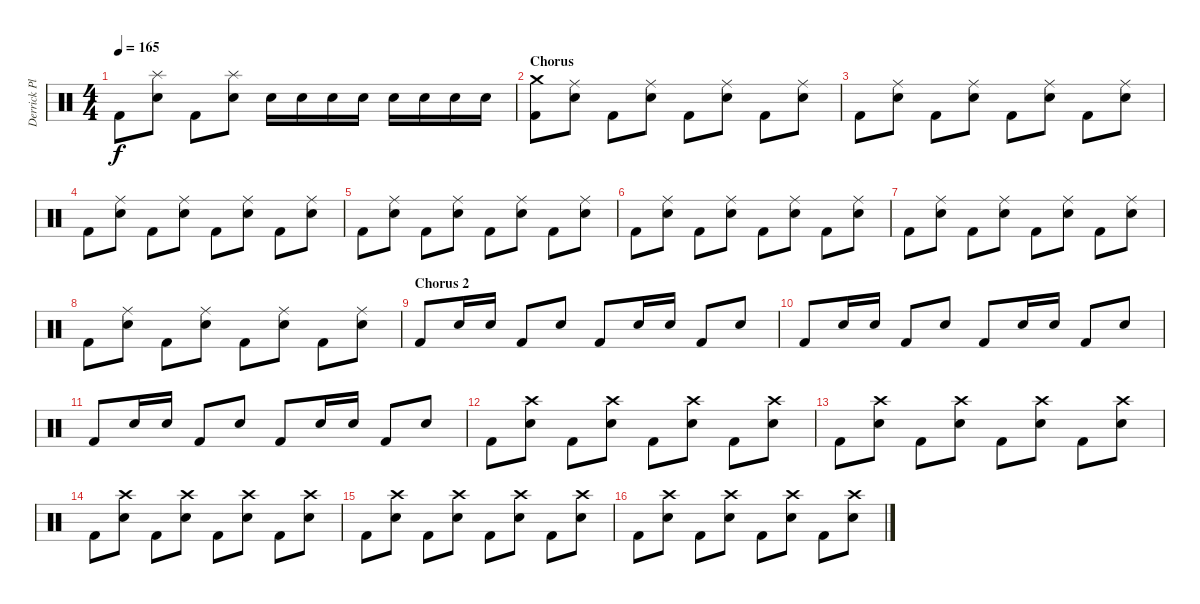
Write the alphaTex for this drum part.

\track ("Derrick Plourde (R.I.P.)" "Derrick Pl") {instrument percussion}
\staff {score}
\articulation defaults
\ts (4 4)
\tempo 165
\clef neutral
\ks c "Kick (hit) 2".8{dy f}
("Electric Snare (hit)" "Splash (hit)").8 "Kick (hit) 2".8 ("Electric Snare (hit)" "Splash (hit)").8 "Electric Snare (hit)".16 "Electric Snare (hit)".16 "Electric Snare (hit)".16 "Electric Snare (hit)".16 "Electric Snare (hit)".16 "Electric Snare (hit)".16 "Electric Snare (hit)".16 "Electric Snare (hit)".16 |
\section ("" "Chorus")
("Kick (hit) 2" "Crash medium (hit)").8 ("Electric Snare (hit)" "Ride (middle)").8 "Kick (hit) 2".8 ("Electric Snare (hit)" "Ride (middle)").8 "Kick (hit) 2".8 ("Electric Snare (hit)" "Ride (middle)").8 "Kick (hit) 2".8 ("Electric Snare (hit)" "Ride (middle)").8 |
"Kick (hit) 2".8 ("Electric Snare (hit)" "Ride (middle)").8 "Kick (hit) 2".8 ("Electric Snare (hit)" "Ride (middle)").8 "Kick (hit) 2".8 ("Electric Snare (hit)" "Ride (middle)").8 "Kick (hit) 2".8 ("Electric Snare (hit)" "Ride (middle)").8 |
"Kick (hit) 2".8 ("Electric Snare (hit)" "Ride (middle)").8 "Kick (hit) 2".8 ("Electric Snare (hit)" "Ride (middle)").8 "Kick (hit) 2".8 ("Electric Snare (hit)" "Ride (middle)").8 "Kick (hit) 2".8 ("Electric Snare (hit)" "Ride (middle)").8 |
"Kick (hit) 2".8 ("Electric Snare (hit)" "Ride (middle)").8 "Kick (hit) 2".8 ("Electric Snare (hit)" "Ride (middle)").8 "Kick (hit) 2".8 ("Electric Snare (hit)" "Ride (middle)").8 "Kick (hit) 2".8 ("Electric Snare (hit)" "Ride (middle)").8 |
"Kick (hit) 2".8 ("Electric Snare (hit)" "Ride (middle)").8 "Kick (hit) 2".8 ("Electric Snare (hit)" "Ride (middle)").8 "Kick (hit) 2".8 ("Electric Snare (hit)" "Ride (middle)").8 "Kick (hit) 2".8 ("Electric Snare (hit)" "Ride (middle)").8 |
"Kick (hit) 2".8 ("Electric Snare (hit)" "Ride (middle)").8 "Kick (hit) 2".8 ("Electric Snare (hit)" "Ride (middle)").8 "Kick (hit) 2".8 ("Electric Snare (hit)" "Ride (middle)").8 "Kick (hit) 2".8 ("Electric Snare (hit)" "Ride (middle)").8 |
"Kick (hit) 2".8 ("Electric Snare (hit)" "Ride (middle)").8 "Kick (hit) 2".8 ("Electric Snare (hit)" "Ride (middle)").8 "Kick (hit) 2".8 ("Electric Snare (hit)" "Ride (middle)").8 "Kick (hit) 2".8 ("Electric Snare (hit)" "Ride (middle)").8 |
\section ("" "Chorus 2")
"Kick (hit) 2".8 "Electric Snare (hit)".16 "Electric Snare (hit)".16 "Kick (hit) 2".8 "Electric Snare (hit)".8 "Kick (hit) 2".8 "Electric Snare (hit)".16 "Electric Snare (hit)".16 "Kick (hit) 2".8 "Electric Snare (hit)".8 |
"Kick (hit) 2".8 "Electric Snare (hit)".16 "Electric Snare (hit)".16 "Kick (hit) 2".8 "Electric Snare (hit)".8 "Kick (hit) 2".8 "Electric Snare (hit)".16 "Electric Snare (hit)".16 "Kick (hit) 2".8 "Electric Snare (hit)".8 |
"Kick (hit) 2".8 "Electric Snare (hit)".16 "Electric Snare (hit)".16 "Kick (hit) 2".8 "Electric Snare (hit)".8 "Kick (hit) 2".8 "Electric Snare (hit)".16 "Electric Snare (hit)".16 "Kick (hit) 2".8 "Electric Snare (hit)".8 |
"Kick (hit) 2".8 ("Electric Snare (hit)" "Crash high (hit)").8 "Kick (hit) 2".8 ("Electric Snare (hit)" "Crash high (hit)").8 "Kick (hit) 2".8 ("Electric Snare (hit)" "Crash high (hit)").8 "Kick (hit) 2".8 ("Electric Snare (hit)" "Crash high (hit)").8 |
"Kick (hit) 2".8 ("Electric Snare (hit)" "Crash high (hit)").8 "Kick (hit) 2".8 ("Electric Snare (hit)" "Crash high (hit)").8 "Kick (hit) 2".8 ("Electric Snare (hit)" "Crash high (hit)").8 "Kick (hit) 2".8 ("Electric Snare (hit)" "Crash high (hit)").8 |
"Kick (hit) 2".8 ("Electric Snare (hit)" "Crash high (hit)").8 "Kick (hit) 2".8 ("Electric Snare (hit)" "Crash high (hit)").8 "Kick (hit) 2".8 ("Electric Snare (hit)" "Crash high (hit)").8 "Kick (hit) 2".8 ("Electric Snare (hit)" "Crash high (hit)").8 |
"Kick (hit) 2".8 ("Electric Snare (hit)" "Crash high (hit)").8 "Kick (hit) 2".8 ("Electric Snare (hit)" "Crash high (hit)").8 "Kick (hit) 2".8 ("Electric Snare (hit)" "Crash high (hit)").8 "Kick (hit) 2".8 ("Electric Snare (hit)" "Crash high (hit)").8 |
"Kick (hit) 2".8 ("Electric Snare (hit)" "Crash high (hit)").8 "Kick (hit) 2".8 ("Electric Snare (hit)" "Crash high (hit)").8 "Kick (hit) 2".8 ("Electric Snare (hit)" "Crash high (hit)").8 "Kick (hit) 2".8 ("Electric Snare (hit)" "Crash high (hit)").8
